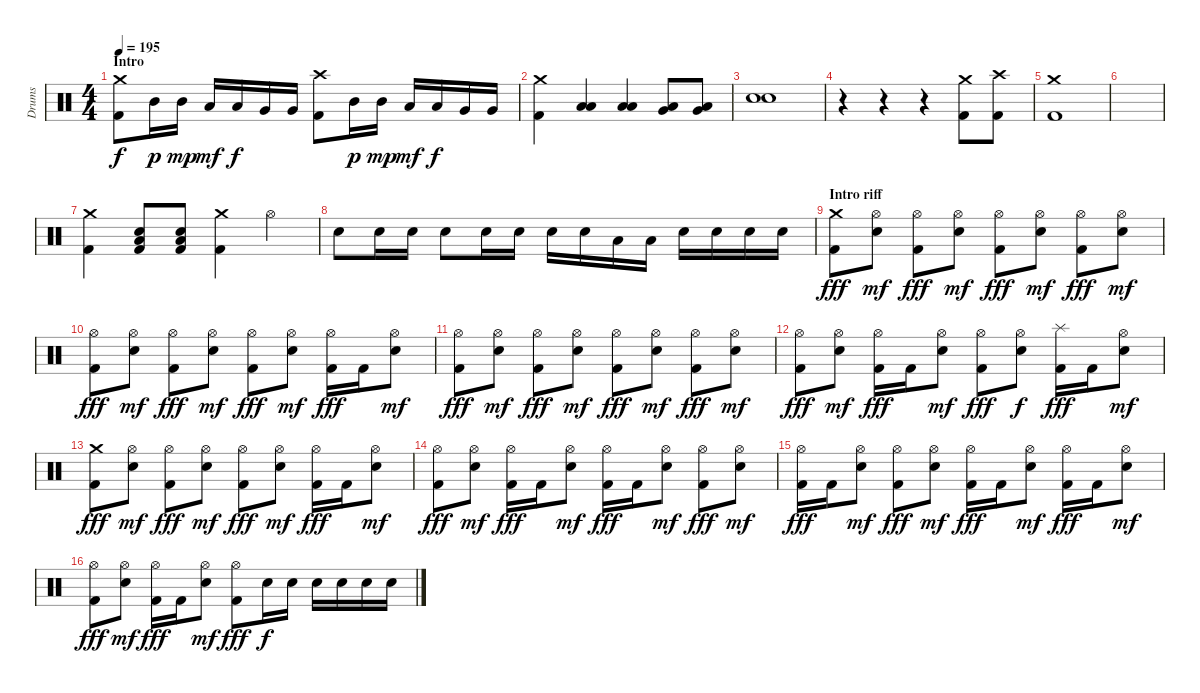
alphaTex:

\track ("Drums" "Drums") {instrument percussion}
\staff {score}
\articulation defaults
\ts (4 4)
\section ("" "Intro")
\tempo 195
\clef neutral
\ks c
("Crash medium (hit)" "Kick (hit) 2").8{dy f} "Mid Tom (hit)".16{dy p} "Mid Tom (hit)".16{dy mp} "Low Tom (hit)".16{dy mf} "Low Tom (hit)".16{dy f} "Very Low Tom (hit)".16 "Very Low Tom (hit)".16 ("Crash high (hit)" "Kick (hit) 2").8 "Mid Tom (hit)".16{dy p} "Mid Tom (hit)".16{dy mp} "Low Tom (hit)".16{dy mf} "Low Tom (hit)".16{dy f} "Very Low Tom (hit)".16 "Very Low Tom (hit)".16 |
("Crash medium (hit)" "Kick (hit) 2").4 ("Low Tom (hit)" "Low Floor Tom (hit)").4 ("Low Tom (hit)" "Low Floor Tom (hit)").4 ("Very Low Tom (hit)" "Low Tom (hit)").8 ("Very Low Tom (hit)" "Low Tom (hit)").8 |
("Snare (hit) 2" "Snare (hit) 2").1 |
r.4 r.4 r.4 ("Crash medium (hit)" "Kick (hit) 2").8 ("Crash high (hit)" "Kick (hit) 2").8 |
("Crash medium (hit)" "Kick (hit) 2").1 |
|
("Crash medium (hit)" "Kick (hit) 2").4 ("Low Floor Tom (hit)" "Snare (hit) 2" "Kick (hit) 2").8 ("Low Floor Tom (hit)" "Snare (hit) 2" "Kick (hit) 2").8 ("Crash medium (hit)" "Kick (hit) 2").4 "Hi-Hat (open)".4 |
"Snare (hit) 2".8 "Snare (hit) 2".16 "Snare (hit) 2".16 "Snare (hit) 2".8 "Snare (hit) 2".16 "Snare (hit) 2".16 "Snare (hit) 2".16 "Snare (hit) 2".16 "Low Tom (hit)".16 "Low Tom (hit)".16 "Snare (hit) 2".16 "Snare (hit) 2".16 "Snare (hit) 2".16 "Snare (hit) 2".16 |
\section ("" "Intro riff")
("Crash medium (hit)" "Kick (hit) 2").8{dy fff} ("Hi-Hat (open)" "Snare (hit) 2").8{dy mf} ("Hi-Hat (open)" "Kick (hit) 2").8{dy fff} ("Hi-Hat (open)" "Snare (hit) 2").8{dy mf} ("Hi-Hat (open)" "Kick (hit) 2").8{dy fff} ("Hi-Hat (open)" "Snare (hit) 2").8{dy mf} ("Hi-Hat (open)" "Kick (hit) 2").8{dy fff} ("Hi-Hat (open)" "Snare (hit) 2").8{dy mf} |
("Hi-Hat (open)" "Kick (hit) 2").8{dy fff} ("Hi-Hat (open)" "Snare (hit) 2").8{dy mf} ("Hi-Hat (open)" "Kick (hit) 2").8{dy fff} ("Hi-Hat (open)" "Snare (hit) 2").8{dy mf} ("Hi-Hat (open)" "Kick (hit) 2").8{dy fff} ("Hi-Hat (open)" "Snare (hit) 2").8{dy mf} ("Hi-Hat (open)" "Kick (hit) 2").16{dy fff} "Kick (hit) 2".16 ("Hi-Hat (open)" "Snare (hit) 2").8{dy mf} |
("Hi-Hat (open)" "Kick (hit) 2").8{dy fff} ("Hi-Hat (open)" "Snare (hit) 2").8{dy mf} ("Hi-Hat (open)" "Kick (hit) 2").8{dy fff} ("Hi-Hat (open)" "Snare (hit) 2").8{dy mf} ("Hi-Hat (open)" "Kick (hit) 2").8{dy fff} ("Hi-Hat (open)" "Snare (hit) 2").8{dy mf} ("Hi-Hat (open)" "Kick (hit) 2").8{dy fff} ("Hi-Hat (open)" "Snare (hit) 2").8{dy mf} |
("Hi-Hat (open)" "Kick (hit) 2").8{dy fff} ("Hi-Hat (open)" "Snare (hit) 2").8{dy mf} ("Hi-Hat (open)" "Kick (hit) 2").16{dy fff} "Kick (hit) 2".16 ("Hi-Hat (open)" "Snare (hit) 2").8{dy mf} ("Hi-Hat (open)" "Kick (hit) 2").8{dy fff} ("Hi-Hat (open)" "Snare (hit) 2").8{dy f} ("Splash (hit)" "Kick (hit) 2").16{dy fff} "Kick (hit) 2".16 ("Hi-Hat (open)" "Snare (hit) 2").8{dy mf} |
("Crash medium (hit)" "Kick (hit) 2").8{dy fff} ("Hi-Hat (open)" "Snare (hit) 2").8{dy mf} ("Hi-Hat (open)" "Kick (hit) 2").8{dy fff} ("Hi-Hat (open)" "Snare (hit) 2").8{dy mf} ("Hi-Hat (open)" "Kick (hit) 2").8{dy fff} ("Hi-Hat (open)" "Snare (hit) 2").8{dy mf} ("Hi-Hat (open)" "Kick (hit) 2").16{dy fff} "Kick (hit) 2".16 ("Hi-Hat (open)" "Snare (hit) 2").8{dy mf} |
("Hi-Hat (open)" "Kick (hit) 2").8{dy fff} ("Hi-Hat (open)" "Snare (hit) 2").8{dy mf} ("Hi-Hat (open)" "Kick (hit) 2").16{dy fff} "Kick (hit) 2".16 ("Hi-Hat (open)" "Snare (hit) 2").8{dy mf} ("Hi-Hat (open)" "Kick (hit) 2").16{dy fff} "Kick (hit) 2".16 ("Hi-Hat (open)" "Snare (hit) 2").8{dy mf} ("Hi-Hat (open)" "Kick (hit) 2").8{dy fff} ("Hi-Hat (open)" "Snare (hit) 2").8{dy mf} |
("Hi-Hat (open)" "Kick (hit) 2").16{dy fff} "Kick (hit) 2".16 ("Hi-Hat (open)" "Snare (hit) 2").8{dy mf} ("Hi-Hat (open)" "Kick (hit) 2").8{dy fff} ("Hi-Hat (open)" "Snare (hit) 2").8{dy mf} ("Hi-Hat (open)" "Kick (hit) 2").16{dy fff} "Kick (hit) 2".16 ("Hi-Hat (open)" "Snare (hit) 2").8{dy mf} ("Hi-Hat (open)" "Kick (hit) 2").16{dy fff} "Kick (hit) 2".16 ("Hi-Hat (open)" "Snare (hit) 2").8{dy mf} |
("Hi-Hat (open)" "Kick (hit) 2").8{dy fff} ("Hi-Hat (open)" "Snare (hit) 2").8{dy mf} ("Hi-Hat (open)" "Kick (hit) 2").16{dy fff} "Kick (hit) 2".16 ("Hi-Hat (open)" "Snare (hit) 2").8{dy mf} ("Hi-Hat (open)" "Kick (hit) 2").8{dy fff} "Snare (hit) 2".16{dy f} "Snare (hit) 2".16 "Snare (hit) 2".16 "Snare (hit) 2".16 "Snare (hit) 2".16 "Snare (hit) 2".16
